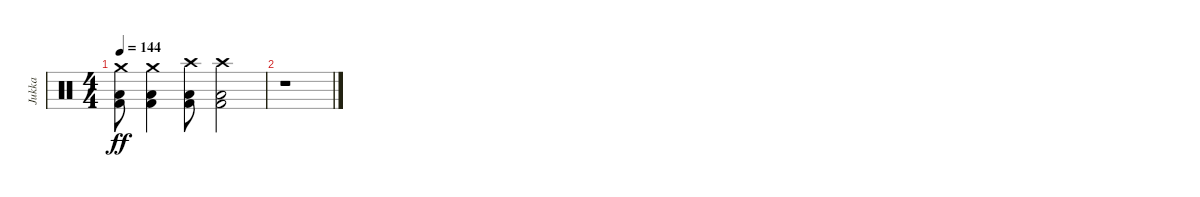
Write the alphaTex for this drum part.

\track ("Jukka" "Jukka") {instrument percussion}
\staff {score}
\articulation defaults
\ts (4 4)
\tempo 144
\clef neutral
\ks c
("Crash medium (hit)" "Low Floor Tom (hit)" "Kick (hit) 2").8{dy ff} ("Crash medium (hit)" "Low Floor Tom (hit)" "Kick (hit) 2").4 ("Crash high (hit)" "Low Floor Tom (hit)" "Kick (hit) 2").8 ("Crash high (hit)" "Low Floor Tom (hit)" "Kick (hit) 2").2 |
r.1
